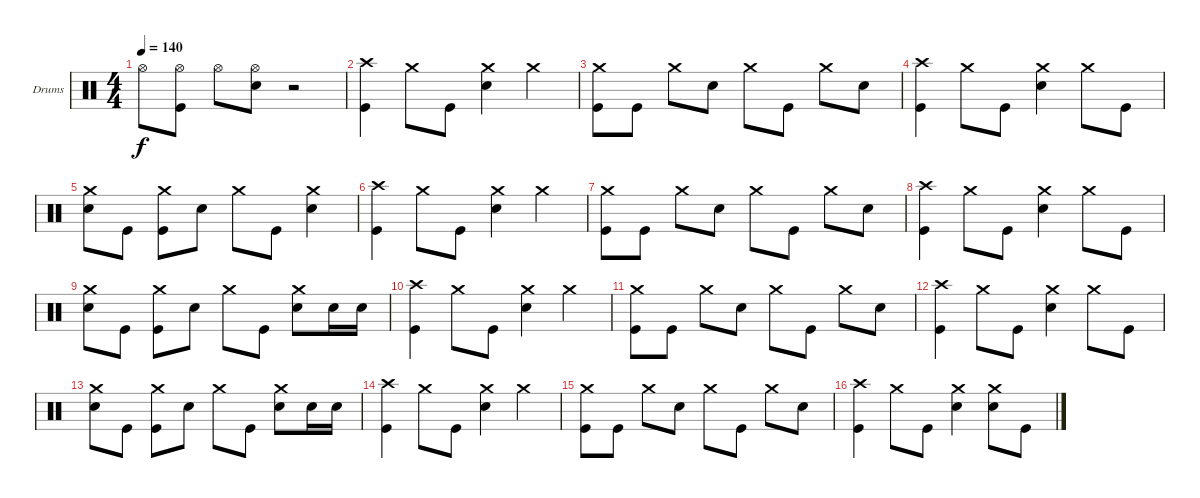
\defaultSystemsLayout 4
\bracketExtendMode groupsimilarinstruments
\firstSystemTrackNameOrientation horizontal
\otherSystemsTrackNameOrientation horizontal
\track ("Drumkit" "Drums") {instrument percussion}
\staff {score}
\articulation defaults
\ts (4 4)
\tempo 140
\clef neutral
\ks c "Hi-Hat (open)".8{dy f}
("Hi-Hat (open)" "Kick (hit)").8 "Hi-Hat (open)".8 ("Hi-Hat (open)" "Snare (hit) 2").8 r.2 |
("Crash high (hit)" "Kick (hit)").4 "Crash medium (hit)".8 "Kick (hit)".8 ("Crash medium (hit)" "Snare (hit) 2").4 "Crash medium (hit)".4 |
("Crash medium (hit)" "Kick (hit)").8 "Kick (hit)".8 "Crash medium (hit)".8 "Snare (hit) 2".8 "Crash medium (hit)".8 "Kick (hit)".8 "Crash medium (hit)".8 "Snare (hit) 2".8 |
("Crash high (hit)" "Kick (hit)").4 "Crash medium (hit)".8 "Kick (hit)".8 ("Crash medium (hit)" "Snare (hit) 2").4 "Crash medium (hit)".8 "Kick (hit)".8 |
("Crash medium (hit)" "Snare (hit) 2").8 "Kick (hit)".8 ("Crash medium (hit)" "Kick (hit)").8 "Snare (hit) 2".8 "Crash medium (hit)".8 "Kick (hit)".8 ("Crash medium (hit)" "Snare (hit) 2").4 |
("Crash high (hit)" "Kick (hit)").4 "Crash medium (hit)".8 "Kick (hit)".8 ("Crash medium (hit)" "Snare (hit) 2").4 "Crash medium (hit)".4 |
("Crash medium (hit)" "Kick (hit)").8 "Kick (hit)".8 "Crash medium (hit)".8 "Snare (hit) 2".8 "Crash medium (hit)".8 "Kick (hit)".8 "Crash medium (hit)".8 "Snare (hit) 2".8 |
("Crash high (hit)" "Kick (hit)").4 "Crash medium (hit)".8 "Kick (hit)".8 ("Crash medium (hit)" "Snare (hit) 2").4 "Crash medium (hit)".8 "Kick (hit)".8 |
("Crash medium (hit)" "Snare (hit) 2").8 "Kick (hit)".8 ("Crash medium (hit)" "Kick (hit)").8 "Snare (hit) 2".8 "Crash medium (hit)".8 "Kick (hit)".8 ("Crash medium (hit)" "Snare (hit) 2").8 "Snare (hit) 2".16 "Snare (hit) 2".16 |
("Crash high (hit)" "Kick (hit)").4 "Crash medium (hit)".8 "Kick (hit)".8 ("Crash medium (hit)" "Snare (hit) 2").4 "Crash medium (hit)".4 |
("Crash medium (hit)" "Kick (hit)").8 "Kick (hit)".8 "Crash medium (hit)".8 "Snare (hit) 2".8 "Crash medium (hit)".8 "Kick (hit)".8 "Crash medium (hit)".8 "Snare (hit) 2".8 |
("Crash high (hit)" "Kick (hit)").4 "Crash medium (hit)".8 "Kick (hit)".8 ("Crash medium (hit)" "Snare (hit) 2").4 "Crash medium (hit)".8 "Kick (hit)".8 |
("Crash medium (hit)" "Snare (hit) 2").8 "Kick (hit)".8 ("Crash medium (hit)" "Kick (hit)").8 "Snare (hit) 2".8 "Crash medium (hit)".8 "Kick (hit)".8 ("Crash medium (hit)" "Snare (hit) 2").8 "Snare (hit) 2".16 "Snare (hit) 2".16 |
("Crash high (hit)" "Kick (hit)").4 "Crash medium (hit)".8 "Kick (hit)".8 ("Crash medium (hit)" "Snare (hit) 2").4 "Crash medium (hit)".4 |
("Crash medium (hit)" "Kick (hit)").8 "Kick (hit)".8 "Crash medium (hit)".8 "Snare (hit) 2".8 "Crash medium (hit)".8 "Kick (hit)".8 "Crash medium (hit)".8 "Snare (hit) 2".8 |
("Crash high (hit)" "Kick (hit)").4 "Crash medium (hit)".8 "Kick (hit)".8 ("Crash medium (hit)" "Snare (hit) 2").4 ("Crash medium (hit)" "Snare (hit) 2").8 "Kick (hit)".8
